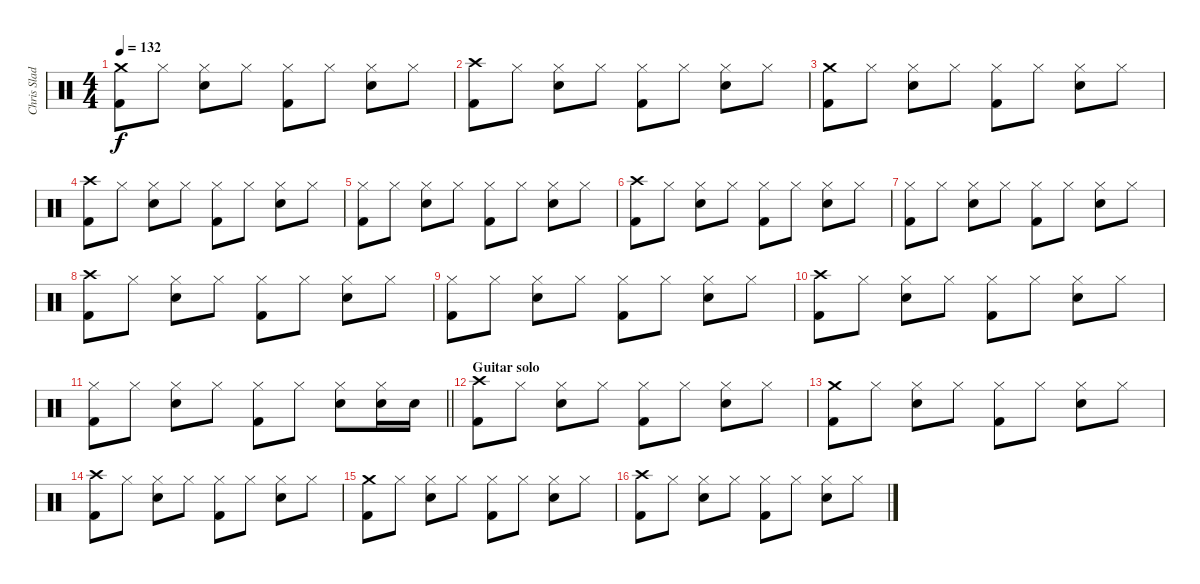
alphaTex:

\track ("Chris Slade" "Chris Slad") {instrument percussion}
\staff {score}
\articulation defaults
\ts (4 4)
\tempo 132
\clef neutral
\ks c
("Kick (hit) 2" "Crash medium (hit)").8{dy f} "Hi-Hat (closed)".8 ("Snare (hit) 2" "Hi-Hat (closed)").8 "Hi-Hat (closed)".8 ("Kick (hit) 2" "Hi-Hat (closed)").8 "Hi-Hat (closed)".8 ("Snare (hit) 2" "Hi-Hat (closed)").8 "Hi-Hat (closed)".8 |
("Kick (hit) 2" "Crash high (hit)").8 "Hi-Hat (closed)".8 ("Snare (hit) 2" "Hi-Hat (closed)").8 "Hi-Hat (closed)".8 ("Kick (hit) 2" "Hi-Hat (closed)").8 "Hi-Hat (closed)".8 ("Snare (hit) 2" "Hi-Hat (closed)").8 "Hi-Hat (closed)".8 |
("Kick (hit) 2" "Crash medium (hit)").8 "Hi-Hat (closed)".8 ("Snare (hit) 2" "Hi-Hat (closed)").8 "Hi-Hat (closed)".8 ("Kick (hit) 2" "Hi-Hat (closed)").8 "Hi-Hat (closed)".8 ("Snare (hit) 2" "Hi-Hat (closed)").8 "Hi-Hat (closed)".8 |
("Kick (hit) 2" "Crash high (hit)").8 "Hi-Hat (closed)".8 ("Snare (hit) 2" "Hi-Hat (closed)").8 "Hi-Hat (closed)".8 ("Kick (hit) 2" "Hi-Hat (closed)").8 "Hi-Hat (closed)".8 ("Snare (hit) 2" "Hi-Hat (closed)").8 "Hi-Hat (closed)".8 |
("Kick (hit) 2" "Hi-Hat (closed)").8 "Hi-Hat (closed)".8 ("Snare (hit) 2" "Hi-Hat (closed)").8 "Hi-Hat (closed)".8 ("Kick (hit) 2" "Hi-Hat (closed)").8 "Hi-Hat (closed)".8 ("Snare (hit) 2" "Hi-Hat (closed)").8 "Hi-Hat (closed)".8 |
("Kick (hit) 2" "Crash high (hit)").8 "Hi-Hat (closed)".8 ("Snare (hit) 2" "Hi-Hat (closed)").8 "Hi-Hat (closed)".8 ("Kick (hit) 2" "Hi-Hat (closed)").8 "Hi-Hat (closed)".8 ("Snare (hit) 2" "Hi-Hat (closed)").8 "Hi-Hat (closed)".8 |
("Kick (hit) 2" "Hi-Hat (closed)").8 "Hi-Hat (closed)".8 ("Snare (hit) 2" "Hi-Hat (closed)").8 "Hi-Hat (closed)".8 ("Kick (hit) 2" "Hi-Hat (closed)").8 "Hi-Hat (closed)".8 ("Snare (hit) 2" "Hi-Hat (closed)").8 "Hi-Hat (closed)".8 |
("Kick (hit) 2" "Crash high (hit)").8 "Hi-Hat (closed)".8 ("Snare (hit) 2" "Hi-Hat (closed)").8 "Hi-Hat (closed)".8 ("Kick (hit) 2" "Hi-Hat (closed)").8 "Hi-Hat (closed)".8 ("Snare (hit) 2" "Hi-Hat (closed)").8 "Hi-Hat (closed)".8 |
("Kick (hit) 2" "Hi-Hat (closed)").8 "Hi-Hat (closed)".8 ("Snare (hit) 2" "Hi-Hat (closed)").8 "Hi-Hat (closed)".8 ("Kick (hit) 2" "Hi-Hat (closed)").8 "Hi-Hat (closed)".8 ("Snare (hit) 2" "Hi-Hat (closed)").8 "Hi-Hat (closed)".8 |
("Kick (hit) 2" "Crash high (hit)").8 "Hi-Hat (closed)".8 ("Snare (hit) 2" "Hi-Hat (closed)").8 "Hi-Hat (closed)".8 ("Kick (hit) 2" "Hi-Hat (closed)").8 "Hi-Hat (closed)".8 ("Snare (hit) 2" "Hi-Hat (closed)").8 "Hi-Hat (closed)".8 |
\barLineRight lightlight
("Kick (hit) 2" "Hi-Hat (closed)").8 "Hi-Hat (closed)".8 ("Snare (hit) 2" "Hi-Hat (closed)").8 "Hi-Hat (closed)".8 ("Kick (hit) 2" "Hi-Hat (closed)").8 "Hi-Hat (closed)".8 ("Snare (hit) 2" "Hi-Hat (closed)").8 ("Snare (hit) 2" "Hi-Hat (closed)").16 "Snare (hit) 2".16 |
\section ("" "Guitar solo")
("Kick (hit) 2" "Crash high (hit)").8 "Hi-Hat (closed)".8 ("Snare (hit) 2" "Hi-Hat (closed)").8 "Hi-Hat (closed)".8 ("Kick (hit) 2" "Hi-Hat (closed)").8 "Hi-Hat (closed)".8 ("Snare (hit) 2" "Hi-Hat (closed)").8 "Hi-Hat (closed)".8 |
("Kick (hit) 2" "Crash medium (hit)").8 "Hi-Hat (closed)".8 ("Snare (hit) 2" "Hi-Hat (closed)").8 "Hi-Hat (closed)".8 ("Kick (hit) 2" "Hi-Hat (closed)").8 "Hi-Hat (closed)".8 ("Snare (hit) 2" "Hi-Hat (closed)").8 "Hi-Hat (closed)".8 |
("Kick (hit) 2" "Crash high (hit)").8 "Hi-Hat (closed)".8 ("Snare (hit) 2" "Hi-Hat (closed)").8 "Hi-Hat (closed)".8 ("Kick (hit) 2" "Hi-Hat (closed)").8 "Hi-Hat (closed)".8 ("Snare (hit) 2" "Hi-Hat (closed)").8 "Hi-Hat (closed)".8 |
("Kick (hit) 2" "Crash medium (hit)").8 "Hi-Hat (closed)".8 ("Snare (hit) 2" "Hi-Hat (closed)").8 "Hi-Hat (closed)".8 ("Kick (hit) 2" "Hi-Hat (closed)").8 "Hi-Hat (closed)".8 ("Snare (hit) 2" "Hi-Hat (closed)").8 "Hi-Hat (closed)".8 |
("Kick (hit) 2" "Crash high (hit)").8 "Hi-Hat (closed)".8 ("Snare (hit) 2" "Hi-Hat (closed)").8 "Hi-Hat (closed)".8 ("Kick (hit) 2" "Hi-Hat (closed)").8 "Hi-Hat (closed)".8 ("Snare (hit) 2" "Hi-Hat (closed)").8 "Hi-Hat (closed)".8
